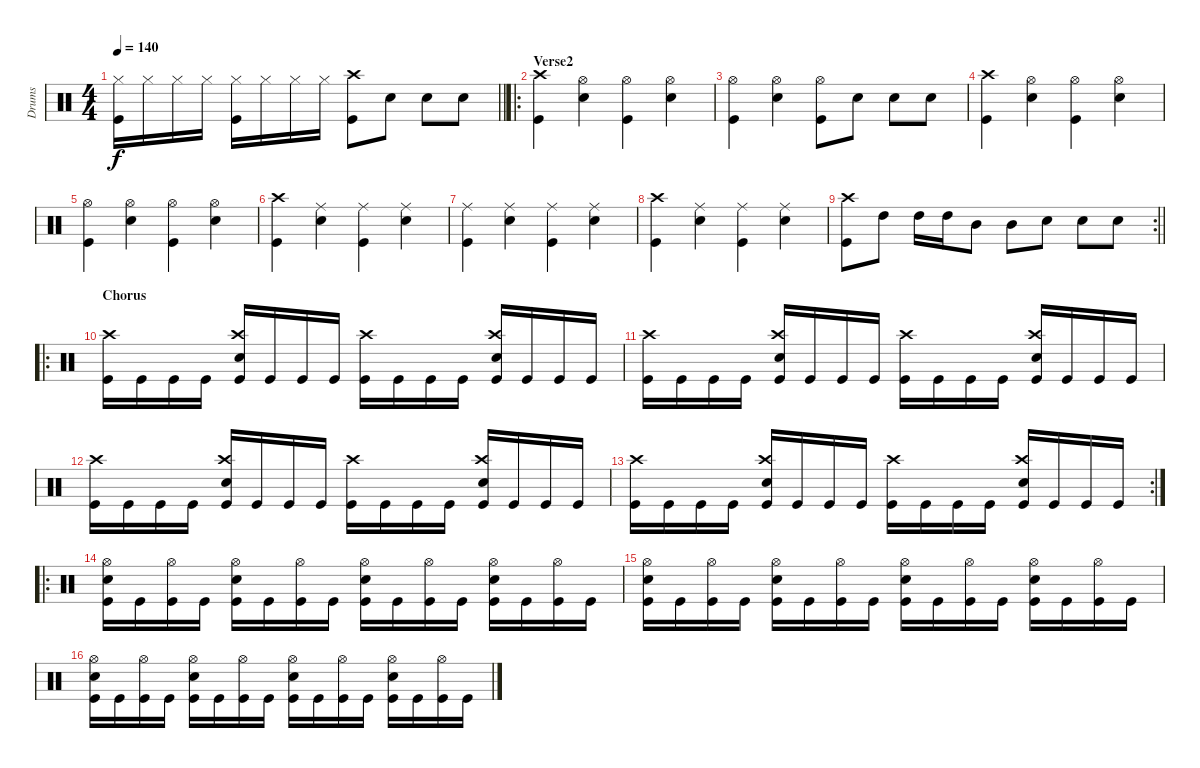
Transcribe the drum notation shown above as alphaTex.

\track ("Drums" "Drums") {instrument percussion}
\staff {score}
\articulation defaults
\ts (4 4)
\tempo 140
\clef neutral
\barLineRight lightlight
\ks c
("Hi-Hat (closed)" "Kick (hit)").16{dy f} "Hi-Hat (closed)".16 "Hi-Hat (closed)".16 "Hi-Hat (closed)".16 ("Hi-Hat (closed)" "Kick (hit)").16 "Hi-Hat (closed)".16 "Hi-Hat (closed)".16 "Hi-Hat (closed)".16 ("Crash high (hit)" "Kick (hit)").8 "Snare (hit) 2".8 "Snare (hit) 2".8 "Snare (hit) 2".8 |
\ro
\section ("" "Verse2")
("Crash high (hit)" "Kick (hit)").4 ("Hi-Hat (open)" "Snare (hit) 2").4 ("Hi-Hat (open)" "Kick (hit)").4 ("Hi-Hat (open)" "Snare (hit) 2").4 |
("Hi-Hat (open)" "Kick (hit)").4 ("Hi-Hat (open)" "Snare (hit) 2").4 ("Hi-Hat (open)" "Kick (hit)").8 "Snare (hit) 2".8 "Snare (hit) 2".8 "Snare (hit) 2".8 |
("Crash high (hit)" "Kick (hit)").4 ("Hi-Hat (open)" "Snare (hit) 2").4 ("Hi-Hat (open)" "Kick (hit)").4 ("Hi-Hat (open)" "Snare (hit) 2").4 |
("Hi-Hat (open)" "Kick (hit)").4 ("Hi-Hat (open)" "Snare (hit) 2").4 ("Hi-Hat (open)" "Kick (hit)").4 ("Hi-Hat (open)" "Snare (hit) 2").4 |
("Crash high (hit)" "Kick (hit)").4 ("Ride (middle)" "Snare (hit) 2").4 ("Ride (middle)" "Kick (hit)").4 ("Ride (middle)" "Snare (hit) 2").4 |
("Ride (middle)" "Kick (hit)").4 ("Ride (middle)" "Snare (hit) 2").4 ("Ride (middle)" "Kick (hit)").4 ("Ride (middle)" "Snare (hit) 2").4 |
("Crash high (hit)" "Kick (hit)").4 ("Ride (middle)" "Snare (hit) 2").4 ("Ride (middle)" "Kick (hit)").4 ("Ride (middle)" "Snare (hit) 2").4 |
\rc 2
\barLineRight lightlight
("Crash high (hit)" "Kick (hit)").8 "High Tom (hit)".8 "High Tom (hit)".16 "High Tom (hit)".16 "Mid Tom (hit)".8 "Mid Tom (hit)".8 "Snare (hit) 2".8 "Snare (hit) 2".8 "Snare (hit) 2".8 |
\ro
\section ("" "Chorus")
("Crash high (hit)" "Kick (hit)").16 "Kick (hit)".16 "Kick (hit)".16 "Kick (hit)".16 ("Snare (hit) 2" "Crash high (hit)" "Kick (hit)").16 "Kick (hit)".16 "Kick (hit)".16 "Kick (hit)".16 ("Crash high (hit)" "Kick (hit)").16 "Kick (hit)".16 "Kick (hit)".16 "Kick (hit)".16 ("Snare (hit) 2" "Crash high (hit)" "Kick (hit)").16 "Kick (hit)".16 "Kick (hit)".16 "Kick (hit)".16 |
("Crash high (hit)" "Kick (hit)").16 "Kick (hit)".16 "Kick (hit)".16 "Kick (hit)".16 ("Snare (hit) 2" "Crash high (hit)" "Kick (hit)").16 "Kick (hit)".16 "Kick (hit)".16 "Kick (hit)".16 ("Crash high (hit)" "Kick (hit)").16 "Kick (hit)".16 "Kick (hit)".16 "Kick (hit)".16 ("Snare (hit) 2" "Crash high (hit)" "Kick (hit)").16 "Kick (hit)".16 "Kick (hit)".16 "Kick (hit)".16 |
("Crash high (hit)" "Kick (hit)").16 "Kick (hit)".16 "Kick (hit)".16 "Kick (hit)".16 ("Snare (hit) 2" "Crash high (hit)" "Kick (hit)").16 "Kick (hit)".16 "Kick (hit)".16 "Kick (hit)".16 ("Crash high (hit)" "Kick (hit)").16 "Kick (hit)".16 "Kick (hit)".16 "Kick (hit)".16 ("Snare (hit) 2" "Crash high (hit)" "Kick (hit)").16 "Kick (hit)".16 "Kick (hit)".16 "Kick (hit)".16 |
\rc 2
("Crash high (hit)" "Kick (hit)").16 "Kick (hit)".16 "Kick (hit)".16 "Kick (hit)".16 ("Snare (hit) 2" "Crash high (hit)" "Kick (hit)").16 "Kick (hit)".16 "Kick (hit)".16 "Kick (hit)".16 ("Crash high (hit)" "Kick (hit)").16 "Kick (hit)".16 "Kick (hit)".16 "Kick (hit)".16 ("Snare (hit) 2" "Crash high (hit)" "Kick (hit)").16 "Kick (hit)".16 "Kick (hit)".16 "Kick (hit)".16 |
\ro
("Snare (hit) 2" "Hi-Hat (open)" "Kick (hit)").16 "Kick (hit)".16 ("Hi-Hat (open)" "Kick (hit)").16 "Kick (hit)".16 ("Snare (hit) 2" "Hi-Hat (open)" "Kick (hit)").16 "Kick (hit)".16 ("Hi-Hat (open)" "Kick (hit)").16 "Kick (hit)".16 ("Snare (hit) 2" "Hi-Hat (open)" "Kick (hit)").16 "Kick (hit)".16 ("Hi-Hat (open)" "Kick (hit)").16 "Kick (hit)".16 ("Snare (hit) 2" "Hi-Hat (open)" "Kick (hit)").16 "Kick (hit)".16 ("Hi-Hat (open)" "Kick (hit)").16 "Kick (hit)".16 |
("Snare (hit) 2" "Hi-Hat (open)" "Kick (hit)").16 "Kick (hit)".16 ("Hi-Hat (open)" "Kick (hit)").16 "Kick (hit)".16 ("Snare (hit) 2" "Hi-Hat (open)" "Kick (hit)").16 "Kick (hit)".16 ("Hi-Hat (open)" "Kick (hit)").16 "Kick (hit)".16 ("Snare (hit) 2" "Hi-Hat (open)" "Kick (hit)").16 "Kick (hit)".16 ("Hi-Hat (open)" "Kick (hit)").16 "Kick (hit)".16 ("Snare (hit) 2" "Hi-Hat (open)" "Kick (hit)").16 "Kick (hit)".16 ("Hi-Hat (open)" "Kick (hit)").16 "Kick (hit)".16 |
("Snare (hit) 2" "Hi-Hat (open)" "Kick (hit)").16 "Kick (hit)".16 ("Hi-Hat (open)" "Kick (hit)").16 "Kick (hit)".16 ("Snare (hit) 2" "Hi-Hat (open)" "Kick (hit)").16 "Kick (hit)".16 ("Hi-Hat (open)" "Kick (hit)").16 "Kick (hit)".16 ("Snare (hit) 2" "Hi-Hat (open)" "Kick (hit)").16 "Kick (hit)".16 ("Hi-Hat (open)" "Kick (hit)").16 "Kick (hit)".16 ("Snare (hit) 2" "Hi-Hat (open)" "Kick (hit)").16 "Kick (hit)".16 ("Hi-Hat (open)" "Kick (hit)").16 "Kick (hit)".16
